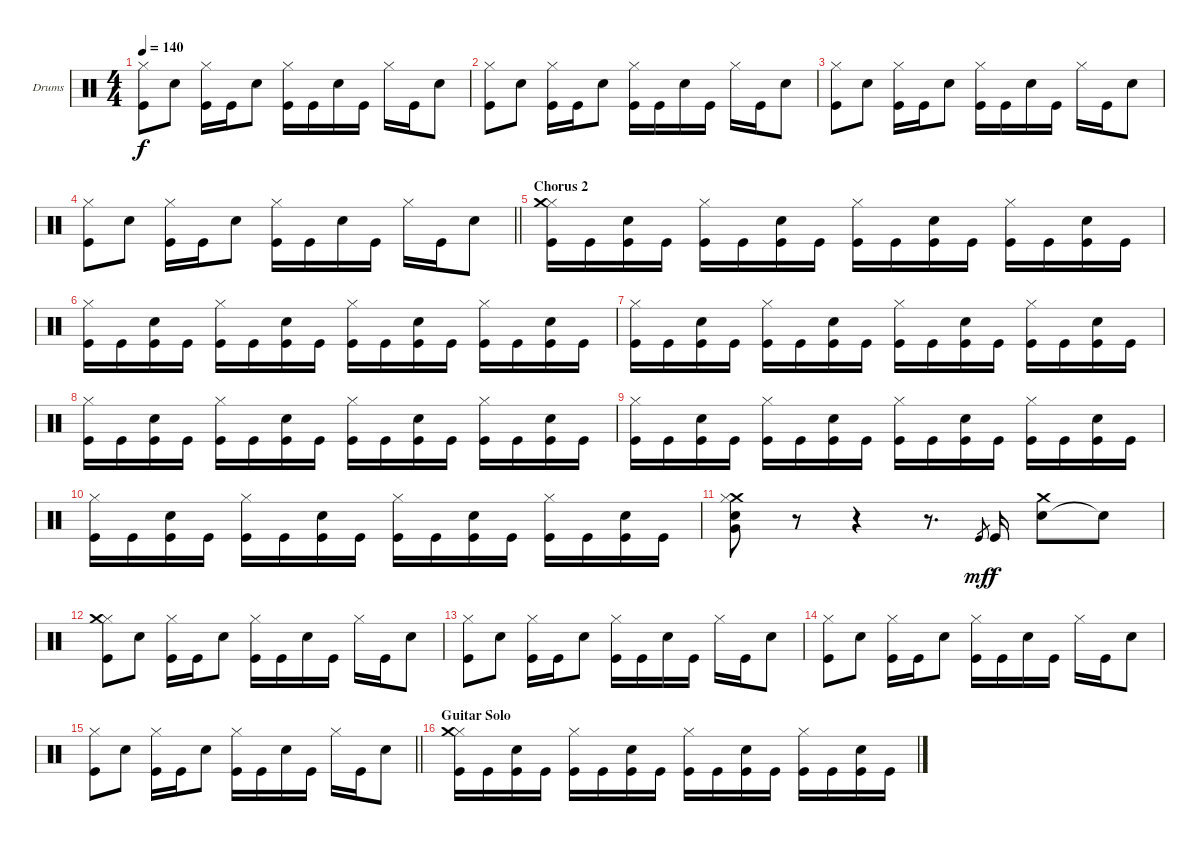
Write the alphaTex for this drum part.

\bracketExtendMode groupsimilarinstruments
\firstSystemTrackNameOrientation horizontal
\otherSystemsTrackNameOrientation horizontal
\track ("Drumkit" "Drums") {instrument percussion}
\staff {score}
\articulation defaults
\ts (4 4)
\tempo 140
\clef neutral
\ks c
("Hi-Hat (closed)" "Kick (hit)").8{dy f} "Snare (hit) 2".8 ("Hi-Hat (closed)" "Kick (hit)").16 "Kick (hit)".16 "Snare (hit) 2".8 ("Hi-Hat (closed)" "Kick (hit)").16 "Kick (hit)".16 "Snare (hit) 2".16 "Kick (hit)".16 "Hi-Hat (closed)".16 "Kick (hit)".16 "Snare (hit) 2".8 |
("Hi-Hat (closed)" "Kick (hit)").8 "Snare (hit) 2".8 ("Hi-Hat (closed)" "Kick (hit)").16 "Kick (hit)".16 "Snare (hit) 2".8 ("Hi-Hat (closed)" "Kick (hit)").16 "Kick (hit)".16 "Snare (hit) 2".16 "Kick (hit)".16 "Hi-Hat (closed)".16 "Kick (hit)".16 "Snare (hit) 2".8 |
("Hi-Hat (closed)" "Kick (hit)").8 "Snare (hit) 2".8 ("Hi-Hat (closed)" "Kick (hit)").16 "Kick (hit)".16 "Snare (hit) 2".8 ("Hi-Hat (closed)" "Kick (hit)").16 "Kick (hit)".16 "Snare (hit) 2".16 "Kick (hit)".16 "Hi-Hat (closed)".16 "Kick (hit)".16 "Snare (hit) 2".8 |
\barLineRight lightlight
("Hi-Hat (closed)" "Kick (hit)").8 "Snare (hit) 2".8 ("Hi-Hat (closed)" "Kick (hit)").16 "Kick (hit)".16 "Snare (hit) 2".8 ("Hi-Hat (closed)" "Kick (hit)").16 "Kick (hit)".16 "Snare (hit) 2".16 "Kick (hit)".16 "Hi-Hat (closed)".16 "Kick (hit)".16 "Snare (hit) 2".8 |
\section ("" "Chorus 2")
("Hi-Hat (closed)" "Kick (hit)" "Crash medium (hit)").16 "Kick (hit)".16 ("Snare (hit) 2" "Kick (hit)").16 "Kick (hit)".16 ("Hi-Hat (closed)" "Kick (hit)").16 "Kick (hit)".16 ("Snare (hit) 2" "Kick (hit)").16 "Kick (hit)".16 ("Hi-Hat (closed)" "Kick (hit)").16 "Kick (hit)".16 ("Snare (hit) 2" "Kick (hit)").16 "Kick (hit)".16 ("Hi-Hat (closed)" "Kick (hit)").16 "Kick (hit)".16 ("Snare (hit) 2" "Kick (hit)").16 "Kick (hit)".16 |
("Hi-Hat (closed)" "Kick (hit)").16 "Kick (hit)".16 ("Snare (hit) 2" "Kick (hit)").16 "Kick (hit)".16 ("Hi-Hat (closed)" "Kick (hit)").16 "Kick (hit)".16 ("Snare (hit) 2" "Kick (hit)").16 "Kick (hit)".16 ("Hi-Hat (closed)" "Kick (hit)").16 "Kick (hit)".16 ("Snare (hit) 2" "Kick (hit)").16 "Kick (hit)".16 ("Hi-Hat (closed)" "Kick (hit)").16 "Kick (hit)".16 ("Snare (hit) 2" "Kick (hit)").16 "Kick (hit)".16 |
("Hi-Hat (closed)" "Kick (hit)").16 "Kick (hit)".16 ("Snare (hit) 2" "Kick (hit)").16 "Kick (hit)".16 ("Hi-Hat (closed)" "Kick (hit)").16 "Kick (hit)".16 ("Snare (hit) 2" "Kick (hit)").16 "Kick (hit)".16 ("Hi-Hat (closed)" "Kick (hit)").16 "Kick (hit)".16 ("Snare (hit) 2" "Kick (hit)").16 "Kick (hit)".16 ("Hi-Hat (closed)" "Kick (hit)").16 "Kick (hit)".16 ("Snare (hit) 2" "Kick (hit)").16 "Kick (hit)".16 |
("Hi-Hat (closed)" "Kick (hit)").16 "Kick (hit)".16 ("Snare (hit) 2" "Kick (hit)").16 "Kick (hit)".16 ("Hi-Hat (closed)" "Kick (hit)").16 "Kick (hit)".16 ("Snare (hit) 2" "Kick (hit)").16 "Kick (hit)".16 ("Hi-Hat (closed)" "Kick (hit)").16 "Kick (hit)".16 ("Snare (hit) 2" "Kick (hit)").16 "Kick (hit)".16 ("Hi-Hat (closed)" "Kick (hit)").16 "Kick (hit)".16 ("Snare (hit) 2" "Kick (hit)").16 "Kick (hit)".16 |
("Hi-Hat (closed)" "Kick (hit)").16 "Kick (hit)".16 ("Snare (hit) 2" "Kick (hit)").16 "Kick (hit)".16 ("Hi-Hat (closed)" "Kick (hit)").16 "Kick (hit)".16 ("Snare (hit) 2" "Kick (hit)").16 "Kick (hit)".16 ("Hi-Hat (closed)" "Kick (hit)").16 "Kick (hit)".16 ("Snare (hit) 2" "Kick (hit)").16 "Kick (hit)".16 ("Hi-Hat (closed)" "Kick (hit)").16 "Kick (hit)".16 ("Snare (hit) 2" "Kick (hit)").16 "Kick (hit)".16 |
("Hi-Hat (closed)" "Kick (hit)").16 "Kick (hit)".16 ("Snare (hit) 2" "Kick (hit)").16 "Kick (hit)".16 ("Hi-Hat (closed)" "Kick (hit)").16 "Kick (hit)".16 ("Snare (hit) 2" "Kick (hit)").16 "Kick (hit)".16 ("Hi-Hat (closed)" "Kick (hit)").16 "Kick (hit)".16 ("Snare (hit) 2" "Kick (hit)").16 "Kick (hit)".16 ("Hi-Hat (closed)" "Kick (hit)").16 "Kick (hit)".16 ("Snare (hit) 2" "Kick (hit)").16 "Kick (hit)".16 |
("Crash medium (hit)" "Snare (hit) 2" "Hi-Hat (closed)" "Very Low Tom (hit)").8 r.8 r.4 r.8{d} "Kick (hit)".8{gr dy mf} "Kick (hit)".16{dy f} ("Snare (hit) 2" "Crash medium (hit)").8 "Snare (hit) 2"{t}.8 |
("Hi-Hat (closed)" "Kick (hit)" "Crash medium (hit)").8 "Snare (hit) 2".8 ("Hi-Hat (closed)" "Kick (hit)").16 "Kick (hit)".16 "Snare (hit) 2".8 ("Hi-Hat (closed)" "Kick (hit)").16 "Kick (hit)".16 "Snare (hit) 2".16 "Kick (hit)".16 "Hi-Hat (closed)".16 "Kick (hit)".16 "Snare (hit) 2".8 |
("Hi-Hat (closed)" "Kick (hit)").8 "Snare (hit) 2".8 ("Hi-Hat (closed)" "Kick (hit)").16 "Kick (hit)".16 "Snare (hit) 2".8 ("Hi-Hat (closed)" "Kick (hit)").16 "Kick (hit)".16 "Snare (hit) 2".16 "Kick (hit)".16 "Hi-Hat (closed)".16 "Kick (hit)".16 "Snare (hit) 2".8 |
("Hi-Hat (closed)" "Kick (hit)").8 "Snare (hit) 2".8 ("Hi-Hat (closed)" "Kick (hit)").16 "Kick (hit)".16 "Snare (hit) 2".8 ("Hi-Hat (closed)" "Kick (hit)").16 "Kick (hit)".16 "Snare (hit) 2".16 "Kick (hit)".16 "Hi-Hat (closed)".16 "Kick (hit)".16 "Snare (hit) 2".8 |
\barLineRight lightlight
("Hi-Hat (closed)" "Kick (hit)").8 "Snare (hit) 2".8 ("Hi-Hat (closed)" "Kick (hit)").16 "Kick (hit)".16 "Snare (hit) 2".8 ("Hi-Hat (closed)" "Kick (hit)").16 "Kick (hit)".16 "Snare (hit) 2".16 "Kick (hit)".16 "Hi-Hat (closed)".16 "Kick (hit)".16 "Snare (hit) 2".8 |
\section ("" "Guitar Solo")
("Hi-Hat (closed)" "Kick (hit)" "Crash medium (hit)").16 "Kick (hit)".16 ("Snare (hit) 2" "Kick (hit)").16 "Kick (hit)".16 ("Hi-Hat (closed)" "Kick (hit)").16 "Kick (hit)".16 ("Snare (hit) 2" "Kick (hit)").16 "Kick (hit)".16 ("Hi-Hat (closed)" "Kick (hit)").16 "Kick (hit)".16 ("Snare (hit) 2" "Kick (hit)").16 "Kick (hit)".16 ("Hi-Hat (closed)" "Kick (hit)").16 "Kick (hit)".16 ("Snare (hit) 2" "Kick (hit)").16 "Kick (hit)".16
